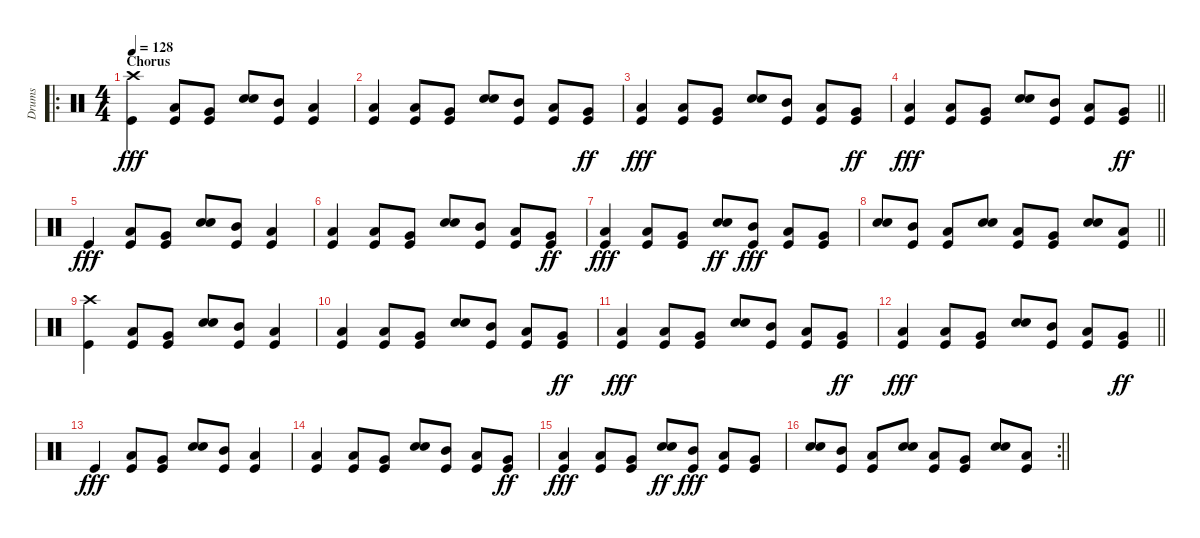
\track ("Drums" "Drums") {instrument percussion}
\staff {score}
\articulation defaults
\ro
\ts (4 4)
\section ("" "Chorus")
\tempo 128
\clef neutral
\ks c
("Crash high (hit)" "Kick (hit)").4{dy fff} ("Low Tom (hit)" "Kick (hit)").8 ("Very Low Tom (hit)" "Kick (hit)").8 ("Snare (hit) 2" "Electric Snare (hit)").8 ("Mid Tom (hit)" "Kick (hit)").8 ("Low Tom (hit)" "Kick (hit)").4 |
("Low Tom (hit)" "Kick (hit)").4 ("Low Tom (hit)" "Kick (hit)").8 ("Very Low Tom (hit)" "Kick (hit)").8 ("Snare (hit) 2" "Electric Snare (hit)").8 ("Mid Tom (hit)" "Kick (hit)").8 ("Low Tom (hit)" "Kick (hit)").8 ("Very Low Tom (hit)" "Kick (hit)").8{dy ff} |
("Low Tom (hit)" "Kick (hit)").4{dy fff} ("Low Tom (hit)" "Kick (hit)").8 ("Very Low Tom (hit)" "Kick (hit)").8 ("Snare (hit) 2" "Electric Snare (hit)").8 ("Mid Tom (hit)" "Kick (hit)").8 ("Low Tom (hit)" "Kick (hit)").8 ("Very Low Tom (hit)" "Kick (hit)").8{dy ff} |
\barLineRight lightlight
("Low Tom (hit)" "Kick (hit)").4{dy fff} ("Low Tom (hit)" "Kick (hit)").8 ("Very Low Tom (hit)" "Kick (hit)").8 ("Snare (hit) 2" "Electric Snare (hit)").8 ("Mid Tom (hit)" "Kick (hit)").8 ("Low Tom (hit)" "Kick (hit)").8 ("Very Low Tom (hit)" "Kick (hit)").8{dy ff} |
"Kick (hit)".4{dy fff} ("Low Tom (hit)" "Kick (hit)").8 ("Very Low Tom (hit)" "Kick (hit)").8 ("Snare (hit) 2" "Electric Snare (hit)").8 ("Mid Tom (hit)" "Kick (hit)").8 ("Low Tom (hit)" "Kick (hit)").4 |
("Low Tom (hit)" "Kick (hit)").4 ("Low Tom (hit)" "Kick (hit)").8 ("Very Low Tom (hit)" "Kick (hit)").8 ("Snare (hit) 2" "Electric Snare (hit)").8 ("Mid Tom (hit)" "Kick (hit)").8 ("Low Tom (hit)" "Kick (hit)").8 ("Very Low Tom (hit)" "Kick (hit)").8{dy ff} |
("Low Tom (hit)" "Kick (hit)").4{dy fff} ("Low Tom (hit)" "Kick (hit)").8 ("Very Low Tom (hit)" "Kick (hit)").8 ("Snare (hit) 2" "Electric Snare (hit)").8{dy ff} ("Mid Tom (hit)" "Kick (hit)").8{dy fff} ("Low Tom (hit)" "Kick (hit)").8 ("Very Low Tom (hit)" "Kick (hit)").8 |
\barLineRight lightlight
("Snare (hit) 2" "Electric Snare (hit)").8 ("Mid Tom (hit)" "Kick (hit)").8 ("Low Tom (hit)" "Kick (hit)").8 ("Snare (hit) 2" "Electric Snare (hit)").8 ("Low Tom (hit)" "Kick (hit)").8 ("Very Low Tom (hit)" "Kick (hit)").8 ("Snare (hit) 2" "Electric Snare (hit)").8 ("Low Tom (hit)" "Kick (hit)").8 |
("Crash high (hit)" "Kick (hit)").4 ("Low Tom (hit)" "Kick (hit)").8 ("Very Low Tom (hit)" "Kick (hit)").8 ("Snare (hit) 2" "Electric Snare (hit)").8 ("Mid Tom (hit)" "Kick (hit)").8 ("Low Tom (hit)" "Kick (hit)").4 |
("Low Tom (hit)" "Kick (hit)").4 ("Low Tom (hit)" "Kick (hit)").8 ("Very Low Tom (hit)" "Kick (hit)").8 ("Snare (hit) 2" "Electric Snare (hit)").8 ("Mid Tom (hit)" "Kick (hit)").8 ("Low Tom (hit)" "Kick (hit)").8 ("Very Low Tom (hit)" "Kick (hit)").8{dy ff} |
("Low Tom (hit)" "Kick (hit)").4{dy fff} ("Low Tom (hit)" "Kick (hit)").8 ("Very Low Tom (hit)" "Kick (hit)").8 ("Snare (hit) 2" "Electric Snare (hit)").8 ("Mid Tom (hit)" "Kick (hit)").8 ("Low Tom (hit)" "Kick (hit)").8 ("Very Low Tom (hit)" "Kick (hit)").8{dy ff} |
\barLineRight lightlight
("Low Tom (hit)" "Kick (hit)").4{dy fff} ("Low Tom (hit)" "Kick (hit)").8 ("Very Low Tom (hit)" "Kick (hit)").8 ("Snare (hit) 2" "Electric Snare (hit)").8 ("Mid Tom (hit)" "Kick (hit)").8 ("Low Tom (hit)" "Kick (hit)").8 ("Very Low Tom (hit)" "Kick (hit)").8{dy ff} |
"Kick (hit)".4{dy fff} ("Low Tom (hit)" "Kick (hit)").8 ("Very Low Tom (hit)" "Kick (hit)").8 ("Snare (hit) 2" "Electric Snare (hit)").8 ("Mid Tom (hit)" "Kick (hit)").8 ("Low Tom (hit)" "Kick (hit)").4 |
("Low Tom (hit)" "Kick (hit)").4 ("Low Tom (hit)" "Kick (hit)").8 ("Very Low Tom (hit)" "Kick (hit)").8 ("Snare (hit) 2" "Electric Snare (hit)").8 ("Mid Tom (hit)" "Kick (hit)").8 ("Low Tom (hit)" "Kick (hit)").8 ("Very Low Tom (hit)" "Kick (hit)").8{dy ff} |
("Low Tom (hit)" "Kick (hit)").4{dy fff} ("Low Tom (hit)" "Kick (hit)").8 ("Very Low Tom (hit)" "Kick (hit)").8 ("Snare (hit) 2" "Electric Snare (hit)").8{dy ff} ("Mid Tom (hit)" "Kick (hit)").8{dy fff} ("Low Tom (hit)" "Kick (hit)").8 ("Very Low Tom (hit)" "Kick (hit)").8 |
\rc 2
\barLineRight lightlight
("Snare (hit) 2" "Electric Snare (hit)").8 ("Mid Tom (hit)" "Kick (hit)").8 ("Low Tom (hit)" "Kick (hit)").8 ("Snare (hit) 2" "Electric Snare (hit)").8 ("Low Tom (hit)" "Kick (hit)").8 ("Very Low Tom (hit)" "Kick (hit)").8 ("Snare (hit) 2" "Electric Snare (hit)").8 ("Low Tom (hit)" "Kick (hit)").8
